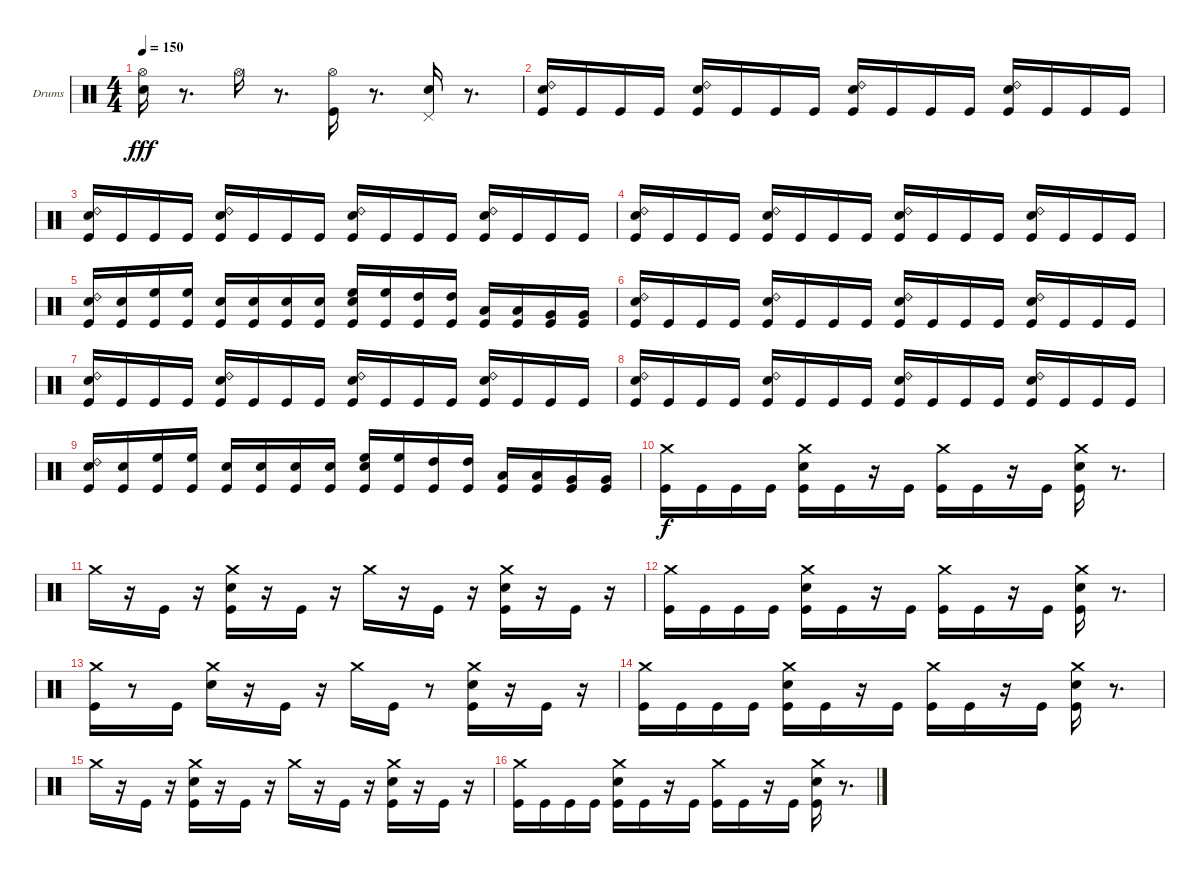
\bracketExtendMode groupsimilarinstruments
\firstSystemTrackNameOrientation horizontal
\otherSystemsTrackNameOrientation horizontal
\track ("Rolo" "Drums") {instrument percussion}
\staff {score}
\articulation defaults
\ts (4 4)
\tempo 150
\clef neutral
\ks c
("Snare (hit) 2" "Hi-Hat (open)").16{dy fff} r.8{d} "Hi-Hat (open)".16 r.8{d} ("Kick (hit)" "Hi-Hat (open)").16 r.8{d} ("Snare (hit) 2" "Pedal Hi-Hat (hit)").16 r.8{d} |
("Kick (hit)" "Snare (hit) 2" "Ride (bell) 2").16 "Kick (hit)".16 "Kick (hit)".16 "Kick (hit)".16 ("Kick (hit)" "Snare (hit) 2" "Ride (bell) 2").16 "Kick (hit)".16 "Kick (hit)".16 "Kick (hit)".16 ("Kick (hit)" "Snare (hit) 2" "Ride (bell) 2").16 "Kick (hit)".16 "Kick (hit)".16 "Kick (hit)".16 ("Kick (hit)" "Snare (hit) 2" "Ride (bell) 2").16 "Kick (hit)".16 "Kick (hit)".16 "Kick (hit)".16 |
("Kick (hit)" "Snare (hit) 2" "Ride (bell) 2").16 "Kick (hit)".16 "Kick (hit)".16 "Kick (hit)".16 ("Kick (hit)" "Snare (hit) 2" "Ride (bell) 2").16 "Kick (hit)".16 "Kick (hit)".16 "Kick (hit)".16 ("Kick (hit)" "Snare (hit) 2" "Ride (bell) 2").16 "Kick (hit)".16 "Kick (hit)".16 "Kick (hit)".16 ("Kick (hit)" "Snare (hit) 2" "Ride (bell) 2").16 "Kick (hit)".16 "Kick (hit)".16 "Kick (hit)".16 |
("Kick (hit)" "Snare (hit) 2" "Ride (bell) 2").16 "Kick (hit)".16 "Kick (hit)".16 "Kick (hit)".16 ("Kick (hit)" "Snare (hit) 2" "Ride (bell) 2").16 "Kick (hit)".16 "Kick (hit)".16 "Kick (hit)".16 ("Kick (hit)" "Snare (hit) 2" "Ride (bell) 2").16 "Kick (hit)".16 "Kick (hit)".16 "Kick (hit)".16 ("Kick (hit)" "Snare (hit) 2" "Ride (bell) 2").16 "Kick (hit)".16 "Kick (hit)".16 "Kick (hit)".16 |
("Kick (hit)" "Snare (hit) 2" "Ride (bell) 2").16 ("Kick (hit)" "Snare (hit) 2").16 ("Kick (hit)" "High Floor Tom (hit)").16 ("Kick (hit)" "High Floor Tom (hit)").16 ("Kick (hit)" "Snare (hit) 2").16 ("Kick (hit)" "Snare (hit) 2").16 ("Kick (hit)" "Snare (hit) 2").16 ("Kick (hit)" "Snare (hit) 2").16 ("Kick (hit)" "Snare (hit) 2" "High Floor Tom (hit)").16 ("Kick (hit)" "High Floor Tom (hit)").16 ("Kick (hit)" "High Tom (hit)").16 ("Kick (hit)" "High Tom (hit)").16 ("Kick (hit)" "Low Tom (hit)").16 ("Kick (hit)" "Low Tom (hit)").16 ("Kick (hit)" "Very Low Tom (hit)").16 ("Kick (hit)" "Very Low Tom (hit)").16 |
("Kick (hit)" "Snare (hit) 2" "Ride (bell) 2").16 "Kick (hit)".16 "Kick (hit)".16 "Kick (hit)".16 ("Kick (hit)" "Snare (hit) 2" "Ride (bell) 2").16 "Kick (hit)".16 "Kick (hit)".16 "Kick (hit)".16 ("Kick (hit)" "Snare (hit) 2" "Ride (bell) 2").16 "Kick (hit)".16 "Kick (hit)".16 "Kick (hit)".16 ("Kick (hit)" "Snare (hit) 2" "Ride (bell) 2").16 "Kick (hit)".16 "Kick (hit)".16 "Kick (hit)".16 |
("Kick (hit)" "Snare (hit) 2" "Ride (bell) 2").16 "Kick (hit)".16 "Kick (hit)".16 "Kick (hit)".16 ("Kick (hit)" "Snare (hit) 2" "Ride (bell) 2").16 "Kick (hit)".16 "Kick (hit)".16 "Kick (hit)".16 ("Kick (hit)" "Snare (hit) 2" "Ride (bell) 2").16 "Kick (hit)".16 "Kick (hit)".16 "Kick (hit)".16 ("Kick (hit)" "Snare (hit) 2" "Ride (bell) 2").16 "Kick (hit)".16 "Kick (hit)".16 "Kick (hit)".16 |
("Kick (hit)" "Snare (hit) 2" "Ride (bell) 2").16 "Kick (hit)".16 "Kick (hit)".16 "Kick (hit)".16 ("Kick (hit)" "Snare (hit) 2" "Ride (bell) 2").16 "Kick (hit)".16 "Kick (hit)".16 "Kick (hit)".16 ("Kick (hit)" "Snare (hit) 2" "Ride (bell) 2").16 "Kick (hit)".16 "Kick (hit)".16 "Kick (hit)".16 ("Kick (hit)" "Snare (hit) 2" "Ride (bell) 2").16 "Kick (hit)".16 "Kick (hit)".16 "Kick (hit)".16 |
("Kick (hit)" "Snare (hit) 2" "Ride (bell) 2").16 ("Kick (hit)" "Snare (hit) 2").16 ("Kick (hit)" "High Floor Tom (hit)").16 ("Kick (hit)" "High Floor Tom (hit)").16 ("Kick (hit)" "Snare (hit) 2").16 ("Kick (hit)" "Snare (hit) 2").16 ("Kick (hit)" "Snare (hit) 2").16 ("Kick (hit)" "Snare (hit) 2").16 ("Kick (hit)" "Snare (hit) 2" "High Floor Tom (hit)").16 ("Kick (hit)" "High Floor Tom (hit)").16 ("Kick (hit)" "High Tom (hit)").16 ("Kick (hit)" "High Tom (hit)").16 ("Kick (hit)" "Low Tom (hit)").16 ("Kick (hit)" "Low Tom (hit)").16 ("Kick (hit)" "Very Low Tom (hit)").16 ("Kick (hit)" "Very Low Tom (hit)").16 |
("Crash medium (hit)" "Kick (hit)").16{dy f} "Kick (hit)".16 "Kick (hit)".16 "Kick (hit)".16 ("Crash medium (hit)" "Snare (hit) 2" "Kick (hit)").16 "Kick (hit)".16 r.16 "Kick (hit)".16 ("Crash medium (hit)" "Kick (hit)").16 "Kick (hit)".16 r.16 "Kick (hit)".16 ("Crash medium (hit)" "Snare (hit) 2" "Kick (hit)").16 r.8{d} |
"Crash medium (hit)".16 r.16 "Kick (hit)".16 r.16 ("Crash medium (hit)" "Snare (hit) 2" "Kick (hit)").16 r.16 "Kick (hit)".16 r.16 "Crash medium (hit)".16 r.16 "Kick (hit)".16 r.16 ("Crash medium (hit)" "Snare (hit) 2" "Kick (hit)").16 r.16 "Kick (hit)".16 r.16 |
("Crash medium (hit)" "Kick (hit)").16 "Kick (hit)".16 "Kick (hit)".16 "Kick (hit)".16 ("Crash medium (hit)" "Snare (hit) 2" "Kick (hit)").16 "Kick (hit)".16 r.16 "Kick (hit)".16 ("Crash medium (hit)" "Kick (hit)").16 "Kick (hit)".16 r.16 "Kick (hit)".16 ("Crash medium (hit)" "Snare (hit) 2" "Kick (hit)").16 r.8{d} |
("Crash medium (hit)" "Kick (hit)").16 r.8 "Kick (hit)".16 ("Crash medium (hit)" "Snare (hit) 2").16 r.16 "Kick (hit)".16 r.16 "Crash medium (hit)".16 "Kick (hit)".16 r.8 ("Crash medium (hit)" "Snare (hit) 2" "Kick (hit)").16 r.16 "Kick (hit)".16 r.16 |
("Crash medium (hit)" "Kick (hit)").16 "Kick (hit)".16 "Kick (hit)".16 "Kick (hit)".16 ("Crash medium (hit)" "Snare (hit) 2" "Kick (hit)").16 "Kick (hit)".16 r.16 "Kick (hit)".16 ("Crash medium (hit)" "Kick (hit)").16 "Kick (hit)".16 r.16 "Kick (hit)".16 ("Crash medium (hit)" "Snare (hit) 2" "Kick (hit)").16 r.8{d} |
"Crash medium (hit)".16 r.16 "Kick (hit)".16 r.16 ("Crash medium (hit)" "Snare (hit) 2" "Kick (hit)").16 r.16 "Kick (hit)".16 r.16 "Crash medium (hit)".16 r.16 "Kick (hit)".16 r.16 ("Crash medium (hit)" "Snare (hit) 2" "Kick (hit)").16 r.16 "Kick (hit)".16 r.16 |
("Crash medium (hit)" "Kick (hit)").16 "Kick (hit)".16 "Kick (hit)".16 "Kick (hit)".16 ("Crash medium (hit)" "Snare (hit) 2" "Kick (hit)").16 "Kick (hit)".16 r.16 "Kick (hit)".16 ("Crash medium (hit)" "Kick (hit)").16 "Kick (hit)".16 r.16 "Kick (hit)".16 ("Crash medium (hit)" "Snare (hit) 2" "Kick (hit)").16 r.8{d}
